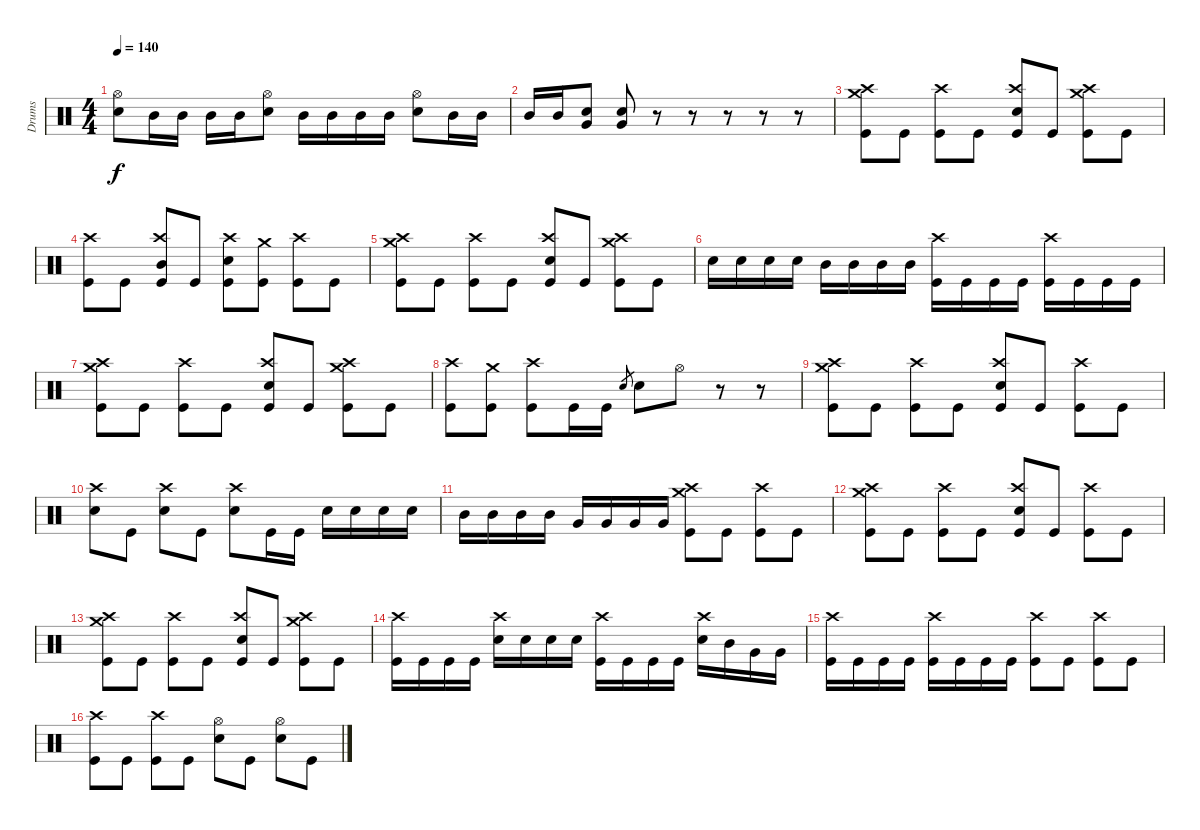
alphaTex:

\track ("Drums" "Drums") {instrument percussion}
\staff {score}
\articulation defaults
\ts (4 4)
\tempo 140
\clef neutral
\ks c
("Hi-Hat (open)" "Electric Snare (hit)").8{dy f} "Mid Tom (hit)".16 "Mid Tom (hit)".16 "Mid Tom (hit)".16 "Mid Tom (hit)".16 ("Hi-Hat (open)" "Electric Snare (hit)").8 "Mid Tom (hit)".16 "Mid Tom (hit)".16 "Mid Tom (hit)".16 "Mid Tom (hit)".16 ("Hi-Hat (open)" "Electric Snare (hit)").8 "Mid Tom (hit)".16 "Mid Tom (hit)".16 |
"Mid Tom (hit)".16 "Mid Tom (hit)".16 ("Very Low Tom (hit)" "Electric Snare (hit)").8 ("Very Low Tom (hit)" "Electric Snare (hit)").8 r.8 r.8 r.8 r.8 r.8 |
("Crash high (hit)" "Crash medium (hit)" "Kick (hit)").8 "Kick (hit)".8 ("Crash high (hit)" "Kick (hit)").8 "Kick (hit)".8 ("Crash high (hit)" "Electric Snare (hit)" "Kick (hit)").8 "Kick (hit)".8 ("Crash high (hit)" "Crash medium (hit)" "Kick (hit)").8 "Kick (hit)".8 |
("Crash high (hit)" "Kick (hit)").8 "Kick (hit)".8 ("Crash high (hit)" "Mid Tom (hit)" "Kick (hit)").8 "Kick (hit)".8 ("Crash high (hit)" "Electric Snare (hit)" "Kick (hit)").8 ("Crash medium (hit)" "Kick (hit)").8 ("Crash high (hit)" "Kick (hit)").8 "Kick (hit)".8 |
("Crash high (hit)" "Crash medium (hit)" "Kick (hit)").8 "Kick (hit)".8 ("Crash high (hit)" "Kick (hit)").8 "Kick (hit)".8 ("Crash high (hit)" "Electric Snare (hit)" "Kick (hit)").8 "Kick (hit)".8 ("Crash high (hit)" "Crash medium (hit)" "Kick (hit)").8 "Kick (hit)".8 |
"Electric Snare (hit)".16 "Electric Snare (hit)".16 "Electric Snare (hit)".16 "Electric Snare (hit)".16 "Mid Tom (hit)".16 "Mid Tom (hit)".16 "Mid Tom (hit)".16 "Mid Tom (hit)".16 ("Crash high (hit)" "Kick (hit)").16 "Kick (hit)".16 "Kick (hit)".16 "Kick (hit)".16 ("Crash high (hit)" "Kick (hit)").16 "Kick (hit)".16 "Kick (hit)".16 "Kick (hit)".16 |
("Crash high (hit)" "Crash medium (hit)" "Kick (hit)").8 "Kick (hit)".8 ("Crash high (hit)" "Kick (hit)").8 "Kick (hit)".8 ("Crash high (hit)" "Electric Snare (hit)" "Kick (hit)").8 "Kick (hit)".8 ("Crash high (hit)" "Crash medium (hit)" "Kick (hit)").8 "Kick (hit)".8 |
("Crash high (hit)" "Kick (hit)").8 ("Crash medium (hit)" "Kick (hit)").8 ("Crash high (hit)" "Kick (hit)").8 "Kick (hit)".16 "Kick (hit)".16 "Snare (hit) 2".8{gr} "Electric Snare (hit)".8 "Hi-Hat (open)".8 r.8 r.8 |
("Crash high (hit)" "Crash medium (hit)" "Kick (hit)").8 "Kick (hit)".8 ("Crash high (hit)" "Kick (hit)").8 "Kick (hit)".8 ("Crash high (hit)" "Electric Snare (hit)" "Kick (hit)").8 "Kick (hit)".8 ("Crash high (hit)" "Kick (hit)").8 "Kick (hit)".8 |
("Electric Snare (hit)" "Crash high (hit)").8 "Kick (hit)".8 ("Electric Snare (hit)" "Crash high (hit)").8 "Kick (hit)".8 ("Crash high (hit)" "Electric Snare (hit)").8 "Kick (hit)".16 "Kick (hit)".16 "Electric Snare (hit)".16 "Electric Snare (hit)".16 "Electric Snare (hit)".16 "Electric Snare (hit)".16 |
"Mid Tom (hit)".16 "Mid Tom (hit)".16 "Mid Tom (hit)".16 "Mid Tom (hit)".16 "Very Low Tom (hit)".16 "Very Low Tom (hit)".16 "Very Low Tom (hit)".16 "Very Low Tom (hit)".16 ("Crash high (hit)" "Crash medium (hit)" "Kick (hit)").8 "Kick (hit)".8 ("Crash high (hit)" "Kick (hit)").8 "Kick (hit)".8 |
("Crash high (hit)" "Crash medium (hit)" "Kick (hit)").8 "Kick (hit)".8 ("Crash high (hit)" "Kick (hit)").8 "Kick (hit)".8 ("Crash high (hit)" "Electric Snare (hit)" "Kick (hit)").8 "Kick (hit)".8 ("Crash high (hit)" "Kick (hit)").8 "Kick (hit)".8 |
("Crash high (hit)" "Crash medium (hit)" "Kick (hit)").8 "Kick (hit)".8 ("Crash high (hit)" "Kick (hit)").8 "Kick (hit)".8 ("Crash high (hit)" "Electric Snare (hit)" "Kick (hit)").8 "Kick (hit)".8 ("Crash high (hit)" "Crash medium (hit)" "Kick (hit)").8 "Kick (hit)".8 |
("Crash high (hit)" "Kick (hit)").16 "Kick (hit)".16 "Kick (hit)".16 "Kick (hit)".16 ("Crash high (hit)" "Electric Snare (hit)").16 "Electric Snare (hit)".16 "Electric Snare (hit)".16 "Electric Snare (hit)".16 ("Crash high (hit)" "Kick (hit)").16 "Kick (hit)".16 "Kick (hit)".16 "Kick (hit)".16 ("Crash high (hit)" "Electric Snare (hit)").16 "Mid Tom (hit)".16 "Very Low Tom (hit)".16 "Very Low Tom (hit)".16 |
("Crash high (hit)" "Kick (hit)").16 "Kick (hit)".16 "Kick (hit)".16 "Kick (hit)".16 ("Crash high (hit)" "Kick (hit)").16 "Kick (hit)".16 "Kick (hit)".16 "Kick (hit)".16 ("Crash high (hit)" "Kick (hit)").8 "Kick (hit)".8 ("Crash high (hit)" "Kick (hit)").8 "Kick (hit)".8 |
("Crash high (hit)" "Kick (hit)").8 "Kick (hit)".8 ("Crash high (hit)" "Kick (hit)").8 "Kick (hit)".8 ("Electric Snare (hit)" "Hi-Hat (open)").8 "Kick (hit)".8 ("Electric Snare (hit)" "Hi-Hat (open)").8 "Kick (hit)".8
